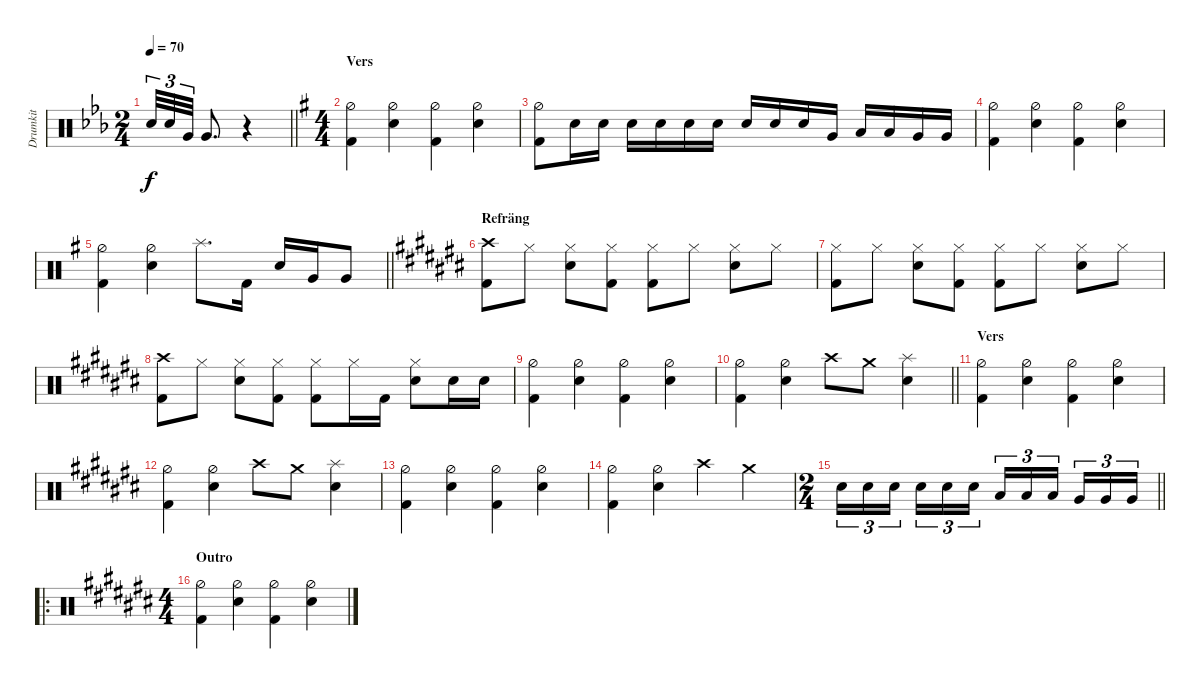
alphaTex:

\track ("Drumkit" "Drumkit") {instrument percussion}
\staff {score}
\articulation defaults
\ts (2 4)
\tempo 70
\clef neutral
\barLineRight lightlight
\ks cminor "Snare (hit) 2".32{tu (3 2) dy f} "Snare (hit) 2".32{tu (3 2)} "Very Low Tom (hit)".32{tu (3 2)} "Very Low Tom (hit)".8{d}
r.4 |
\ts (4 4)
\section ("" "Vers")
\ks eminor
("Hi-Hat (half)" "Kick (hit) 2").4 ("Hi-Hat (half)" "Snare (hit) 2").4 ("Hi-Hat (half)" "Kick (hit) 2").4 ("Hi-Hat (half)" "Snare (hit) 2").4 |
("Kick (hit) 2" "Hi-Hat (half)").8 "Snare (hit) 2".16 "Snare (hit) 2".16 "Snare (hit) 2".16 "Snare (hit) 2".16 "Snare (hit) 2".16 "Snare (hit) 2".16 "Snare (hit) 2".16 "Snare (hit) 2".16 "Snare (hit) 2".16 "Very Low Tom (hit)".16 "Low Tom (hit)".16 "Low Tom (hit)".16 "Very Low Tom (hit)".16 "Very Low Tom (hit)".16 |
("Hi-Hat (half)" "Kick (hit) 2").4 ("Hi-Hat (half)" "Snare (hit) 2").4 ("Hi-Hat (half)" "Kick (hit) 2").4 ("Hi-Hat (half)" "Snare (hit) 2").4 |
\barLineRight lightlight
("Hi-Hat (half)" "Kick (hit) 2").4 ("Hi-Hat (half)" "Snare (hit) 2").4 "Splash (hit)".8{d} "Kick (hit) 2".16 "Snare (hit) 2".16 "Very Low Tom (hit)".16 "Very Low Tom (hit)".8 |
\section ("" "Refräng")
\ks a#minor
("Crash high (hit)" "Kick (hit) 2").8 "Hi-Hat (closed)".8 ("Snare (hit) 2" "Hi-Hat (closed)").8 ("Kick (hit) 2" "Hi-Hat (closed)").8 ("Kick (hit) 2" "Hi-Hat (closed)").8 "Hi-Hat (closed)".8 ("Snare (hit) 2" "Hi-Hat (closed)").8 "Hi-Hat (closed)".8 |
("Kick (hit) 2" "Hi-Hat (closed)").8 "Hi-Hat (closed)".8 ("Snare (hit) 2" "Hi-Hat (closed)").8 ("Kick (hit) 2" "Hi-Hat (closed)").8 ("Kick (hit) 2" "Hi-Hat (closed)").8 "Hi-Hat (closed)".8 ("Snare (hit) 2" "Hi-Hat (closed)").8 "Hi-Hat (closed)".8 |
("Crash high (hit)" "Kick (hit) 2").8 "Hi-Hat (closed)".8 ("Snare (hit) 2" "Hi-Hat (closed)").8 ("Kick (hit) 2" "Hi-Hat (closed)").8 ("Kick (hit) 2" "Hi-Hat (closed)").8 "Hi-Hat (closed)".16 "Kick (hit) 2".16 ("Snare (hit) 2" "Hi-Hat (closed)").8 "Snare (hit) 2".16 "Snare (hit) 2".16 |
("Hi-Hat (half)" "Kick (hit) 2").4 ("Hi-Hat (half)" "Snare (hit) 2").4 ("Hi-Hat (half)" "Kick (hit) 2").4 ("Hi-Hat (half)" "Snare (hit) 2").4 |
\barLineRight lightlight
("Hi-Hat (half)" "Kick (hit) 2").4 ("Hi-Hat (half)" "Snare (hit) 2").4 "Crash high (hit)".8 "Crash medium (hit)".8 ("Splash (hit)" "Snare (hit) 2").4 |
\section ("" "Vers")
("Hi-Hat (half)" "Kick (hit) 2").4 ("Hi-Hat (half)" "Snare (hit) 2").4 ("Hi-Hat (half)" "Kick (hit) 2").4 ("Hi-Hat (half)" "Snare (hit) 2").4 |
("Hi-Hat (half)" "Kick (hit) 2").4 ("Hi-Hat (half)" "Snare (hit) 2").4 "Crash high (hit)".8 "Crash medium (hit)".8 ("Splash (hit)" "Snare (hit) 2").4 |
("Hi-Hat (half)" "Kick (hit) 2").4 ("Hi-Hat (half)" "Snare (hit) 2").4 ("Hi-Hat (half)" "Kick (hit) 2").4 ("Hi-Hat (half)" "Snare (hit) 2").4 |
("Hi-Hat (half)" "Kick (hit) 2").4 ("Hi-Hat (half)" "Snare (hit) 2").4 "Crash high (hit)".4 "Crash medium (hit)".4 |
\ts (2 4)
\barLineRight lightlight "Snare (hit) 2".16{tu (3 2)} "Snare (hit) 2".16{tu (3 2)} "Snare (hit) 2".16{tu (3 2)} "Snare (hit) 2".16{tu (3 2)} "Snare (hit) 2".16{tu (3 2)} "Snare (hit) 2".16{tu (3 2)} "Low Tom (hit)".16{tu (3 2)} "Low Tom (hit)".16{tu (3 2)} "Low Tom (hit)".16{tu (3 2)} "Very Low Tom (hit)".16{tu (3 2)} "Very Low Tom (hit)".16{tu (3 2)} "Very Low Tom (hit)".16{tu (3 2)}
|
\ro
\ts (4 4)
\section ("" "Outro")
("Hi-Hat (half)" "Kick (hit) 2").4 ("Hi-Hat (half)" "Snare (hit) 2").4 ("Hi-Hat (half)" "Kick (hit) 2").4 ("Hi-Hat (half)" "Snare (hit) 2").4
